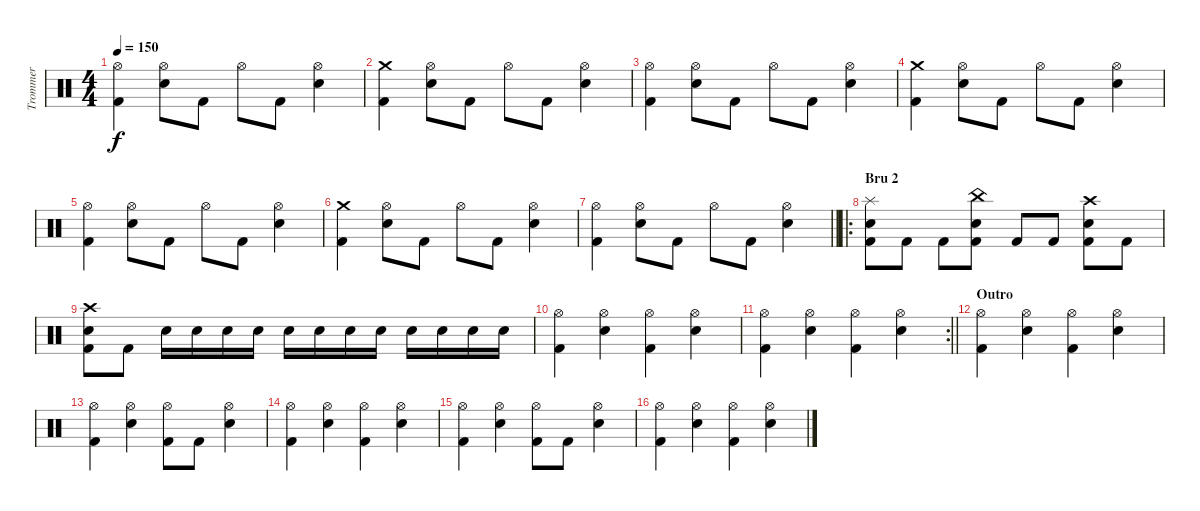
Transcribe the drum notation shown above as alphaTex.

\track ("Trommer" "Trommer") {instrument percussion}
\staff {score}
\articulation defaults
\ts (4 4)
\tempo 150
\clef neutral
\ks c
("Hi-Hat (open)" "Kick (hit) 2").4{dy f} ("Hi-Hat (open)" "Snare (hit) 2").8 "Kick (hit) 2".8 "Hi-Hat (open)".8 "Kick (hit) 2".8 ("Hi-Hat (open)" "Snare (hit) 2").4 |
("Crash medium (hit)" "Kick (hit) 2").4 ("Hi-Hat (open)" "Snare (hit) 2").8 "Kick (hit) 2".8 "Hi-Hat (open)".8 "Kick (hit) 2".8 ("Hi-Hat (open)" "Snare (hit) 2").4 |
("Hi-Hat (open)" "Kick (hit) 2").4 ("Hi-Hat (open)" "Snare (hit) 2").8 "Kick (hit) 2".8 "Hi-Hat (open)".8 "Kick (hit) 2".8 ("Hi-Hat (open)" "Snare (hit) 2").4 |
("Crash medium (hit)" "Kick (hit) 2").4 ("Hi-Hat (open)" "Snare (hit) 2").8 "Kick (hit) 2".8 "Hi-Hat (open)".8 "Kick (hit) 2".8 ("Hi-Hat (open)" "Snare (hit) 2").4 |
("Hi-Hat (open)" "Kick (hit) 2").4 ("Hi-Hat (open)" "Snare (hit) 2").8 "Kick (hit) 2".8 "Hi-Hat (open)".8 "Kick (hit) 2".8 ("Hi-Hat (open)" "Snare (hit) 2").4 |
("Crash medium (hit)" "Kick (hit) 2").4 ("Hi-Hat (open)" "Snare (hit) 2").8 "Kick (hit) 2".8 "Hi-Hat (open)".8 "Kick (hit) 2".8 ("Hi-Hat (open)" "Snare (hit) 2").4 |
\barLineRight lightlight
("Hi-Hat (open)" "Kick (hit) 2").4 ("Hi-Hat (open)" "Snare (hit) 2").8 "Kick (hit) 2".8 "Hi-Hat (open)".8 "Kick (hit) 2".8 ("Hi-Hat (open)" "Snare (hit) 2").4 |
\ro
\section ("" "Bru 2")
("Splash (hit)" "Snare (hit) 2" "Kick (hit) 2").8 "Kick (hit) 2".8 "Kick (hit) 2".8 ("China (hit)" "Snare (hit) 2" "Kick (hit) 2").8 "Kick (hit) 2".8 "Kick (hit) 2".8 ("Crash high (hit)" "Snare (hit) 2" "Kick (hit) 2").8 "Kick (hit) 2".8 |
("Crash high (hit)" "Snare (hit) 2" "Kick (hit) 2").8 "Kick (hit) 2".8 "Snare (hit) 2".16 "Snare (hit) 2".16 "Snare (hit) 2".16 "Snare (hit) 2".16 "Snare (hit) 2".16 "Snare (hit) 2".16 "Snare (hit) 2".16 "Snare (hit) 2".16 "Snare (hit) 2".16 "Snare (hit) 2".16 "Snare (hit) 2".16 "Snare (hit) 2".16 |
("Hi-Hat (open)" "Kick (hit) 2").4 ("Hi-Hat (open)" "Snare (hit) 2").4 ("Hi-Hat (open)" "Kick (hit) 2").4 ("Hi-Hat (open)" "Snare (hit) 2").4 |
\rc 2
\barLineRight lightlight
("Hi-Hat (open)" "Kick (hit) 2").4 ("Hi-Hat (open)" "Snare (hit) 2").4 ("Hi-Hat (open)" "Kick (hit) 2").4 ("Hi-Hat (open)" "Snare (hit) 2").4 |
\section ("" "Outro")
("Hi-Hat (open)" "Kick (hit) 2").4 ("Hi-Hat (open)" "Snare (hit) 2").4 ("Hi-Hat (open)" "Kick (hit) 2").4 ("Hi-Hat (open)" "Snare (hit) 2").4 |
("Hi-Hat (open)" "Kick (hit) 2").4 ("Hi-Hat (open)" "Snare (hit) 2").4 ("Hi-Hat (open)" "Kick (hit) 2").8 "Kick (hit) 2".8 ("Hi-Hat (open)" "Snare (hit) 2").4 |
("Hi-Hat (open)" "Kick (hit) 2").4 ("Hi-Hat (open)" "Snare (hit) 2").4 ("Hi-Hat (open)" "Kick (hit) 2").4 ("Hi-Hat (open)" "Snare (hit) 2").4 |
("Hi-Hat (open)" "Kick (hit) 2").4 ("Hi-Hat (open)" "Snare (hit) 2").4 ("Hi-Hat (open)" "Kick (hit) 2").8 "Kick (hit) 2".8 ("Hi-Hat (open)" "Snare (hit) 2").4 |
("Hi-Hat (open)" "Kick (hit) 2").4 ("Hi-Hat (open)" "Snare (hit) 2").4 ("Hi-Hat (open)" "Kick (hit) 2").4 ("Hi-Hat (open)" "Snare (hit) 2").4
